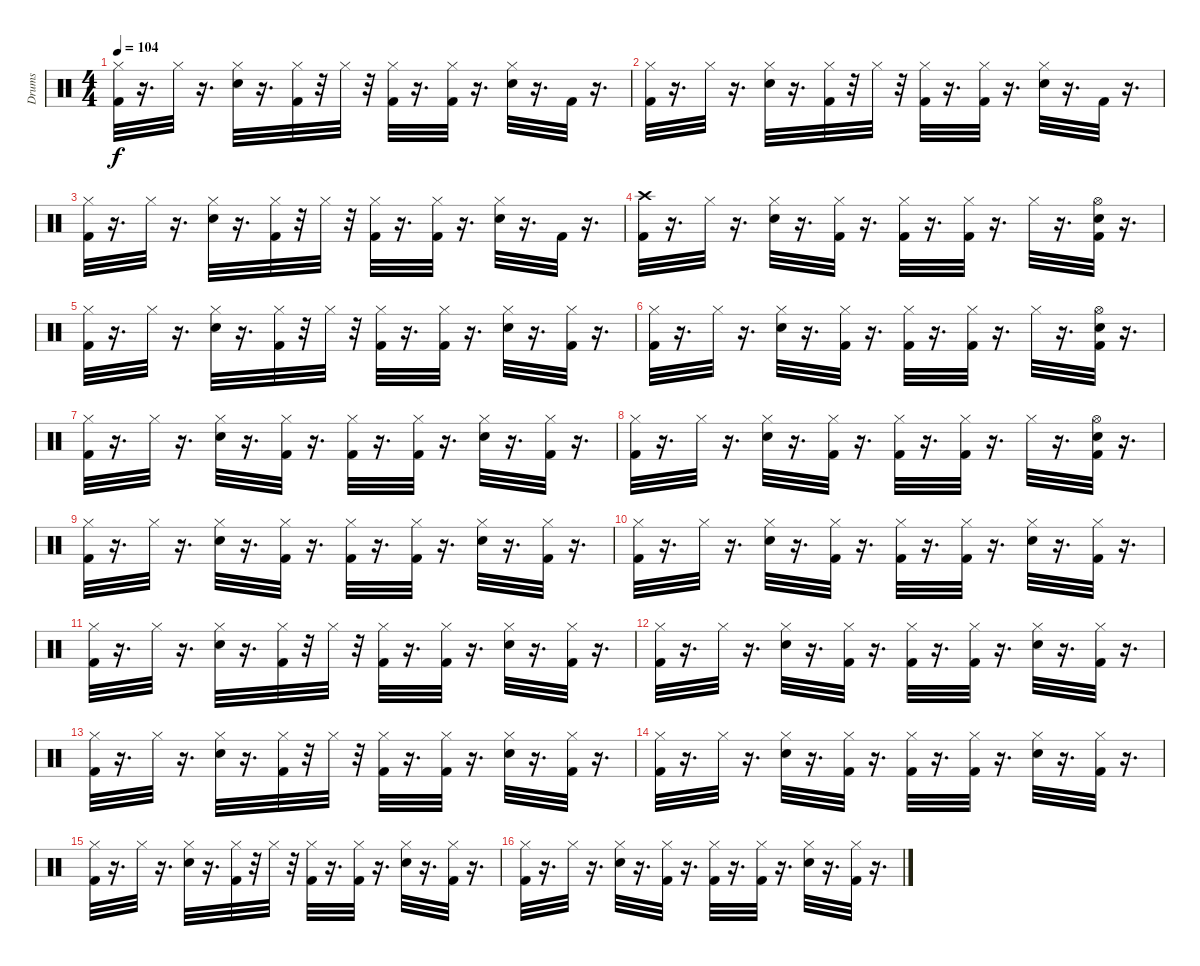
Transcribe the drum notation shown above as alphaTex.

\track ("Drums" "Drums") {instrument percussion}
\staff {score}
\articulation defaults
\ts (4 4)
\tempo 104
\clef neutral
\ks c
("Hi-Hat (closed)" "Kick (hit) 2").32{dy f} r.16{d} "Hi-Hat (closed)".32 r.16{d} ("Hi-Hat (closed)" "Snare (hit) 2").32 r.16{d} ("Hi-Hat (closed)" "Kick (hit) 2").32 r.32 "Hi-Hat (closed)".32 r.32 ("Hi-Hat (closed)" "Kick (hit) 2").32 r.16{d} ("Hi-Hat (closed)" "Kick (hit) 2").32 r.16{d} ("Hi-Hat (closed)" "Snare (hit) 2").32 r.16{d} "Kick (hit) 2".32 r.16{d} |
("Hi-Hat (closed)" "Kick (hit) 2").32 r.16{d} "Hi-Hat (closed)".32 r.16{d} ("Hi-Hat (closed)" "Snare (hit) 2").32 r.16{d} ("Hi-Hat (closed)" "Kick (hit) 2").32 r.32 "Hi-Hat (closed)".32 r.32 ("Hi-Hat (closed)" "Kick (hit) 2").32 r.16{d} ("Hi-Hat (closed)" "Kick (hit) 2").32 r.16{d} ("Hi-Hat (closed)" "Snare (hit) 2").32 r.16{d} "Kick (hit) 2".32 r.16{d} |
("Hi-Hat (closed)" "Kick (hit) 2").32 r.16{d} "Hi-Hat (closed)".32 r.16{d} ("Hi-Hat (closed)" "Snare (hit) 2").32 r.16{d} ("Hi-Hat (closed)" "Kick (hit) 2").32 r.32 "Hi-Hat (closed)".32 r.32 ("Hi-Hat (closed)" "Kick (hit) 2").32 r.16{d} ("Hi-Hat (closed)" "Kick (hit) 2").32 r.16{d} ("Hi-Hat (closed)" "Snare (hit) 2").32 r.16{d} "Kick (hit) 2".32 r.16{d} |
("Crash high (hit)" "Kick (hit) 2").32 r.16{d} "Hi-Hat (closed)".32 r.16{d} ("Hi-Hat (closed)" "Snare (hit) 2").32 r.16{d} ("Hi-Hat (closed)" "Kick (hit) 2").32 r.16{d} ("Hi-Hat (closed)" "Kick (hit) 2").32 r.16{d} ("Hi-Hat (closed)" "Kick (hit) 2").32 r.16{d} "Hi-Hat (closed)".32 r.16{d} ("Hi-Hat (open)" "Kick (hit) 2" "Snare (hit) 2").32 r.16{d} |
("Hi-Hat (closed)" "Kick (hit) 2").32 r.16{d} "Hi-Hat (closed)".32 r.16{d} ("Hi-Hat (closed)" "Snare (hit) 2").32 r.16{d} ("Hi-Hat (closed)" "Kick (hit) 2").32 r.32 "Hi-Hat (closed)".32 r.32 ("Hi-Hat (closed)" "Kick (hit) 2").32 r.16{d} ("Hi-Hat (closed)" "Kick (hit) 2").32 r.16{d} ("Hi-Hat (closed)" "Snare (hit) 2").32 r.16{d} ("Hi-Hat (closed)" "Kick (hit) 2").32 r.16{d} |
("Hi-Hat (closed)" "Kick (hit) 2").32 r.16{d} "Hi-Hat (closed)".32 r.16{d} ("Hi-Hat (closed)" "Snare (hit) 2").32 r.16{d} ("Hi-Hat (closed)" "Kick (hit) 2").32 r.16{d} ("Hi-Hat (closed)" "Kick (hit) 2").32 r.16{d} ("Hi-Hat (closed)" "Kick (hit) 2").32 r.16{d} "Hi-Hat (closed)".32 r.16{d} ("Hi-Hat (open)" "Kick (hit) 2" "Snare (hit) 2").32 r.16{d} |
("Hi-Hat (closed)" "Kick (hit) 2").32 r.16{d} "Hi-Hat (closed)".32 r.16{d} ("Hi-Hat (closed)" "Snare (hit) 2").32 r.16{d} ("Hi-Hat (closed)" "Kick (hit) 2").32 r.16{d} ("Hi-Hat (closed)" "Kick (hit) 2").32 r.16{d} ("Hi-Hat (closed)" "Kick (hit) 2").32 r.16{d} ("Hi-Hat (closed)" "Snare (hit) 2").32 r.16{d} ("Hi-Hat (closed)" "Kick (hit) 2").32 r.16{d} |
("Hi-Hat (closed)" "Kick (hit) 2").32 r.16{d} "Hi-Hat (closed)".32 r.16{d} ("Hi-Hat (closed)" "Snare (hit) 2").32 r.16{d} ("Hi-Hat (closed)" "Kick (hit) 2").32 r.16{d} ("Hi-Hat (closed)" "Kick (hit) 2").32 r.16{d} ("Hi-Hat (closed)" "Kick (hit) 2").32 r.16{d} "Hi-Hat (closed)".32 r.16{d} ("Hi-Hat (open)" "Kick (hit) 2" "Snare (hit) 2").32 r.16{d} |
("Hi-Hat (closed)" "Kick (hit) 2").32 r.16{d} "Hi-Hat (closed)".32 r.16{d} ("Hi-Hat (closed)" "Snare (hit) 2").32 r.16{d} ("Kick (hit) 2" "Hi-Hat (closed)").32 r.16{d} ("Hi-Hat (closed)" "Kick (hit) 2").32 r.16{d} ("Hi-Hat (closed)" "Kick (hit) 2").32 r.16{d} ("Hi-Hat (closed)" "Snare (hit) 2").32 r.16{d} ("Hi-Hat (closed)" "Kick (hit) 2").32 r.16{d} |
("Hi-Hat (closed)" "Kick (hit) 2").32 r.16{d} "Hi-Hat (closed)".32 r.16{d} ("Hi-Hat (closed)" "Snare (hit) 2").32 r.16{d} ("Hi-Hat (closed)" "Kick (hit) 2").32 r.16{d} ("Hi-Hat (closed)" "Kick (hit) 2").32 r.16{d} ("Hi-Hat (closed)" "Kick (hit) 2").32 r.16{d} ("Hi-Hat (closed)" "Snare (hit) 2").32 r.16{d} ("Hi-Hat (closed)" "Kick (hit) 2").32 r.16{d} |
("Hi-Hat (closed)" "Kick (hit) 2").32 r.16{d} "Hi-Hat (closed)".32 r.16{d} ("Hi-Hat (closed)" "Snare (hit) 2").32 r.16{d} ("Hi-Hat (closed)" "Kick (hit) 2").32 r.32 "Hi-Hat (closed)".32 r.32 ("Hi-Hat (closed)" "Kick (hit) 2").32 r.16{d} ("Hi-Hat (closed)" "Kick (hit) 2").32 r.16{d} ("Hi-Hat (closed)" "Snare (hit) 2").32 r.16{d} ("Hi-Hat (closed)" "Kick (hit) 2").32 r.16{d} |
("Hi-Hat (closed)" "Kick (hit) 2").32 r.16{d} "Hi-Hat (closed)".32 r.16{d} ("Hi-Hat (closed)" "Snare (hit) 2").32 r.16{d} ("Hi-Hat (closed)" "Kick (hit) 2").32 r.16{d} ("Hi-Hat (closed)" "Kick (hit) 2").32 r.16{d} ("Hi-Hat (closed)" "Kick (hit) 2").32 r.16{d} ("Hi-Hat (closed)" "Snare (hit) 2").32 r.16{d} ("Hi-Hat (closed)" "Kick (hit) 2").32 r.16{d} |
("Hi-Hat (closed)" "Kick (hit) 2").32 r.16{d} "Hi-Hat (closed)".32 r.16{d} ("Hi-Hat (closed)" "Snare (hit) 2").32 r.16{d} ("Hi-Hat (closed)" "Kick (hit) 2").32 r.32 "Hi-Hat (closed)".32 r.32 ("Hi-Hat (closed)" "Kick (hit) 2").32 r.16{d} ("Hi-Hat (closed)" "Kick (hit) 2").32 r.16{d} ("Hi-Hat (closed)" "Snare (hit) 2").32 r.16{d} ("Hi-Hat (closed)" "Kick (hit) 2").32 r.16{d} |
("Hi-Hat (closed)" "Kick (hit) 2").32 r.16{d} "Hi-Hat (closed)".32 r.16{d} ("Hi-Hat (closed)" "Snare (hit) 2").32 r.16{d} ("Hi-Hat (closed)" "Kick (hit) 2").32 r.16{d} ("Hi-Hat (closed)" "Kick (hit) 2").32 r.16{d} ("Hi-Hat (closed)" "Kick (hit) 2").32 r.16{d} ("Hi-Hat (closed)" "Snare (hit) 2").32 r.16{d} ("Hi-Hat (closed)" "Kick (hit) 2").32 r.16{d} |
("Hi-Hat (closed)" "Kick (hit) 2").32 r.16{d} "Hi-Hat (closed)".32 r.16{d} ("Hi-Hat (closed)" "Snare (hit) 2").32 r.16{d} ("Hi-Hat (closed)" "Kick (hit) 2").32 r.32 "Hi-Hat (closed)".32 r.32 ("Hi-Hat (closed)" "Kick (hit) 2").32 r.16{d} ("Hi-Hat (closed)" "Kick (hit) 2").32 r.16{d} ("Hi-Hat (closed)" "Snare (hit) 2").32 r.16{d} ("Hi-Hat (closed)" "Kick (hit) 2").32 r.16{d} |
("Hi-Hat (closed)" "Kick (hit) 2").32 r.16{d} "Hi-Hat (closed)".32 r.16{d} ("Hi-Hat (closed)" "Snare (hit) 2").32 r.16{d} ("Hi-Hat (closed)" "Kick (hit) 2").32 r.16{d} ("Hi-Hat (closed)" "Kick (hit) 2").32 r.16{d} ("Hi-Hat (closed)" "Kick (hit) 2").32 r.16{d} ("Hi-Hat (closed)" "Snare (hit) 2").32 r.16{d} ("Hi-Hat (closed)" "Kick (hit) 2").32 r.16{d}
